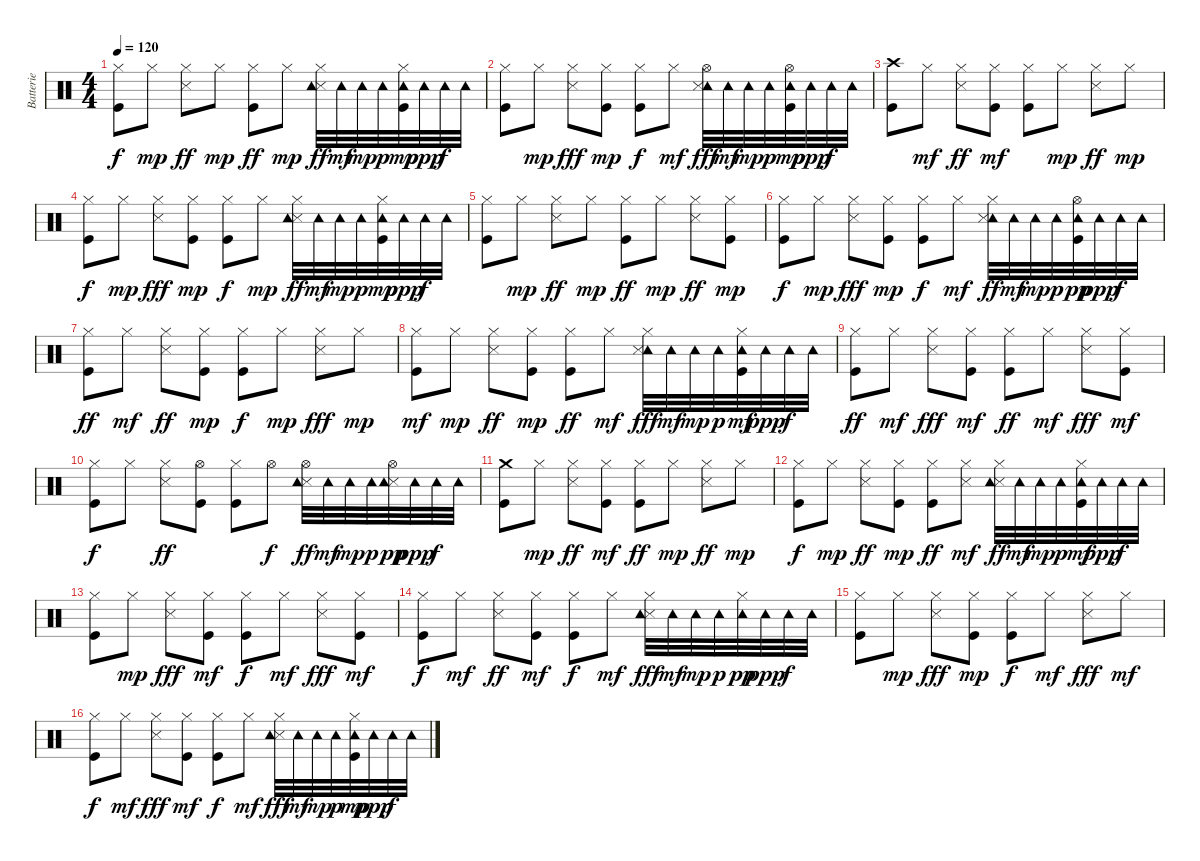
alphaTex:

\track ("Batterie" "Batterie") {instrument percussion}
\staff {score}
\articulation defaults
\ts (4 4)
\tempo 120
\clef neutral
\ks c
("Kick (hit)" "Hi-Hat (closed)").8{dy f} "Hi-Hat (closed)".8{dy mp} ("Snare (side stick) 3" "Hi-Hat (closed)").8{dy ff} "Hi-Hat (closed)".8{dy mp} ("Kick (hit)" "Hi-Hat (closed)").8{dy ff} "Hi-Hat (closed)".8{dy mp} ("Snare (side stick) 3" "Tambourine (hit)" "Hi-Hat (closed)").32{dy ff} "Tambourine (hit)".32{dy mf} "Tambourine (hit)".32{dy mp} "Tambourine (hit)".32{dy p} ("Tambourine (hit)" "Kick (hit)" "Hi-Hat (closed)").32{dy mp} "Tambourine (hit)".32{dy ppp} "Tambourine (hit)".32{dy f} "Tambourine (hit)".32 |
("Kick (hit)" "Hi-Hat (closed)").8 "Hi-Hat (closed)".8{dy mp} ("Snare (side stick) 3" "Hi-Hat (closed)").8{dy fff} ("Kick (hit)" "Hi-Hat (closed)").8{dy mp} ("Kick (hit)" "Hi-Hat (closed)").8{dy f} "Hi-Hat (closed)".8{dy mf} ("Hi-Hat (open)" "Tambourine (hit)" "Snare (side stick) 3").32{dy fff} "Tambourine (hit)".32{dy mf} "Tambourine (hit)".32{dy mp} "Tambourine (hit)".32{dy p} ("Hi-Hat (open)" "Tambourine (hit)" "Kick (hit)").32{dy mp} "Tambourine (hit)".32{dy ppp} "Tambourine (hit)".32{dy f} "Tambourine (hit)".32 |
("Kick (hit)" "Crash high (hit)").8 "Hi-Hat (closed)".8{dy mf} ("Snare (side stick) 3" "Hi-Hat (closed)").8{dy ff} ("Kick (hit)" "Hi-Hat (closed)").8{dy mf} ("Kick (hit)" "Hi-Hat (closed)").8 "Hi-Hat (closed)".8{dy mp} ("Snare (side stick) 3" "Hi-Hat (closed)").8{dy ff} "Hi-Hat (closed)".8{dy mp} |
("Kick (hit)" "Hi-Hat (closed)").8{dy f} "Hi-Hat (closed)".8{dy mp} ("Snare (side stick) 3" "Hi-Hat (closed)").8{dy fff} ("Kick (hit)" "Hi-Hat (closed)").8{dy mp} ("Kick (hit)" "Hi-Hat (closed)").8{dy f} "Hi-Hat (closed)".8{dy mp} ("Snare (side stick) 3" "Hi-Hat (closed)" "Tambourine (hit)").32{dy ff} "Tambourine (hit)".32{dy mf} "Tambourine (hit)".32{dy mp} "Tambourine (hit)".32{dy p} ("Kick (hit)" "Tambourine (hit)" "Hi-Hat (closed)").32{dy mp} "Tambourine (hit)".32{dy ppp} "Tambourine (hit)".32{dy f} "Tambourine (hit)".32 |
("Kick (hit)" "Hi-Hat (closed)").8 "Hi-Hat (closed)".8{dy mp} ("Snare (side stick) 3" "Hi-Hat (closed)").8{dy ff} "Hi-Hat (closed)".8{dy mp} ("Kick (hit)" "Hi-Hat (closed)").8{dy ff} "Hi-Hat (closed)".8{dy mp} ("Snare (side stick) 3" "Hi-Hat (closed)").8{dy ff} ("Kick (hit)" "Hi-Hat (closed)").8{dy mp} |
("Kick (hit)" "Hi-Hat (closed)").8{dy f} "Hi-Hat (closed)".8{dy mp} ("Snare (side stick) 3" "Hi-Hat (closed)").8{dy fff} ("Kick (hit)" "Hi-Hat (closed)").8{dy mp} ("Kick (hit)" "Hi-Hat (closed)").8{dy f} "Hi-Hat (closed)".8{dy mf} ("Tambourine (hit)" "Snare (side stick) 3" "Hi-Hat (closed)").32{dy ff} "Tambourine (hit)".32{dy mf} "Tambourine (hit)".32{dy mp} "Tambourine (hit)".32{dy p} ("Kick (hit)" "Hi-Hat (open)" "Tambourine (hit)").32{dy pp} "Tambourine (hit)".32{dy ppp} "Tambourine (hit)".32{dy f} "Tambourine (hit)".32 |
("Hi-Hat (closed)" "Kick (hit)").8{dy ff} "Hi-Hat (closed)".8{dy mf} ("Snare (side stick) 3" "Hi-Hat (closed)").8{dy ff} ("Kick (hit)" "Hi-Hat (closed)").8{dy mp} ("Kick (hit)" "Hi-Hat (closed)").8{dy f} "Hi-Hat (closed)".8{dy mp} ("Snare (side stick) 3" "Hi-Hat (closed)").8{dy fff} "Hi-Hat (closed)".8{dy mp} |
("Kick (hit)" "Hi-Hat (closed)").8{dy mf} "Hi-Hat (closed)".8{dy mp} ("Snare (side stick) 3" "Hi-Hat (closed)").8{dy ff} ("Kick (hit)" "Hi-Hat (closed)").8{dy mp} ("Kick (hit)" "Hi-Hat (closed)").8{dy ff} "Hi-Hat (closed)".8{dy mf} ("Tambourine (hit)" "Snare (side stick) 3" "Hi-Hat (closed)").32{dy fff} "Tambourine (hit)".32{dy mf} "Tambourine (hit)".32{dy mp} "Tambourine (hit)".32{dy p} ("Kick (hit)" "Tambourine (hit)" "Hi-Hat (closed)").32{dy mf} "Tambourine (hit)".32{dy ppp} "Tambourine (hit)".32{dy f} "Tambourine (hit)".32 |
("Kick (hit)" "Hi-Hat (closed)").8{dy ff} "Hi-Hat (closed)".8{dy mf} ("Snare (side stick) 3" "Hi-Hat (closed)").8{dy fff} ("Kick (hit)" "Hi-Hat (closed)").8{dy mf} ("Kick (hit)" "Hi-Hat (closed)").8{dy ff} "Hi-Hat (closed)".8{dy mf} ("Snare (side stick) 3" "Hi-Hat (closed)").8{dy fff} ("Kick (hit)" "Hi-Hat (closed)").8{dy mf} |
("Kick (hit)" "Hi-Hat (closed)").8{dy f} "Hi-Hat (closed)".8 ("Snare (side stick) 3" "Hi-Hat (closed)").8{dy ff} ("Kick (hit)" "Hi-Hat (open)").8 ("Kick (hit)" "Hi-Hat (closed)").8 "Hi-Hat (open)".8{dy f} ("Snare (side stick) 3" "Hi-Hat (open)" "Tambourine (hit)").32{dy ff} "Tambourine (hit)".32{dy mf} "Tambourine (hit)".32{dy mp} "Tambourine (hit)".32{dy p} ("Snare (side stick) 3" "Hi-Hat (open)" "Tambourine (hit)").32{dy pp} "Tambourine (hit)".32{dy ppp} "Tambourine (hit)".32{dy f} "Tambourine (hit)".32 |
("Crash medium (hit)" "Kick (hit)").8 "Hi-Hat (closed)".8{dy mp} ("Snare (side stick) 3" "Hi-Hat (closed)").8{dy ff} ("Kick (hit)" "Hi-Hat (closed)").8{dy mf} ("Kick (hit)" "Hi-Hat (closed)").8{dy ff} "Hi-Hat (closed)".8{dy mp} ("Snare (side stick) 3" "Hi-Hat (closed)").8{dy ff} "Hi-Hat (closed)".8{dy mp} |
("Kick (hit)" "Hi-Hat (closed)").8{dy f} "Hi-Hat (closed)".8{dy mp} ("Snare (side stick) 3" "Hi-Hat (closed)").8{dy ff} ("Kick (hit)" "Hi-Hat (closed)").8{dy mp} ("Kick (hit)" "Hi-Hat (closed)").8{dy ff} ("Snare (side stick) 3" "Hi-Hat (closed)").8{dy mf} ("Snare (side stick) 3" "Tambourine (hit)" "Hi-Hat (closed)").32{dy ff} "Tambourine (hit)".32{dy mf} "Tambourine (hit)".32{dy mp} "Tambourine (hit)".32{dy p} ("Kick (hit)" "Tambourine (hit)" "Hi-Hat (closed)").32{dy mf} "Tambourine (hit)".32{dy ppp} "Tambourine (hit)".32{dy f} "Tambourine (hit)".32 |
("Kick (hit)" "Hi-Hat (closed)").8 "Hi-Hat (closed)".8{dy mp} ("Snare (side stick) 3" "Hi-Hat (closed)").8{dy fff} ("Kick (hit)" "Hi-Hat (closed)").8{dy mf} ("Kick (hit)" "Hi-Hat (closed)").8{dy f} "Hi-Hat (closed)".8{dy mf} ("Snare (side stick) 3" "Hi-Hat (closed)").8{dy fff} ("Kick (hit)" "Hi-Hat (closed)").8{dy mf} |
("Kick (hit)" "Hi-Hat (closed)").8{dy f} "Hi-Hat (closed)".8{dy mf} ("Snare (side stick) 3" "Hi-Hat (closed)").8{dy ff} ("Kick (hit)" "Hi-Hat (closed)").8{dy mf} ("Kick (hit)" "Hi-Hat (closed)").8{dy f} "Hi-Hat (closed)".8{dy mf} ("Snare (side stick) 3" "Tambourine (hit)" "Hi-Hat (closed)").32{dy fff} "Tambourine (hit)".32{dy mf} "Tambourine (hit)".32{dy mp} "Tambourine (hit)".32{dy p} ("Hi-Hat (closed)" "Tambourine (hit)").32{dy pp} "Tambourine (hit)".32{dy ppp} "Tambourine (hit)".32{dy f} "Tambourine (hit)".32 |
("Kick (hit)" "Hi-Hat (closed)").8 "Hi-Hat (closed)".8{dy mp} ("Snare (side stick) 3" "Hi-Hat (closed)").8{dy fff} ("Kick (hit)" "Hi-Hat (closed)").8{dy mp} ("Kick (hit)" "Hi-Hat (closed)").8{dy f} "Hi-Hat (closed)".8{dy mf} ("Snare (side stick) 3" "Hi-Hat (closed)").8{dy fff} "Hi-Hat (closed)".8{dy mf} |
("Kick (hit)" "Hi-Hat (closed)").8{dy f} "Hi-Hat (closed)".8{dy mf} ("Snare (side stick) 3" "Hi-Hat (closed)").8{dy fff} ("Kick (hit)" "Hi-Hat (closed)").8{dy mf} ("Kick (hit)" "Hi-Hat (closed)").8{dy f} "Hi-Hat (closed)".8{dy mf} ("Snare (side stick) 3" "Tambourine (hit)" "Hi-Hat (closed)").32{dy fff} "Tambourine (hit)".32{dy mf} "Tambourine (hit)".32{dy mp} "Tambourine (hit)".32{dy p} ("Tambourine (hit)" "Kick (hit)" "Hi-Hat (closed)").32{dy mp} "Tambourine (hit)".32{dy ppp} "Tambourine (hit)".32{dy f} "Tambourine (hit)".32
